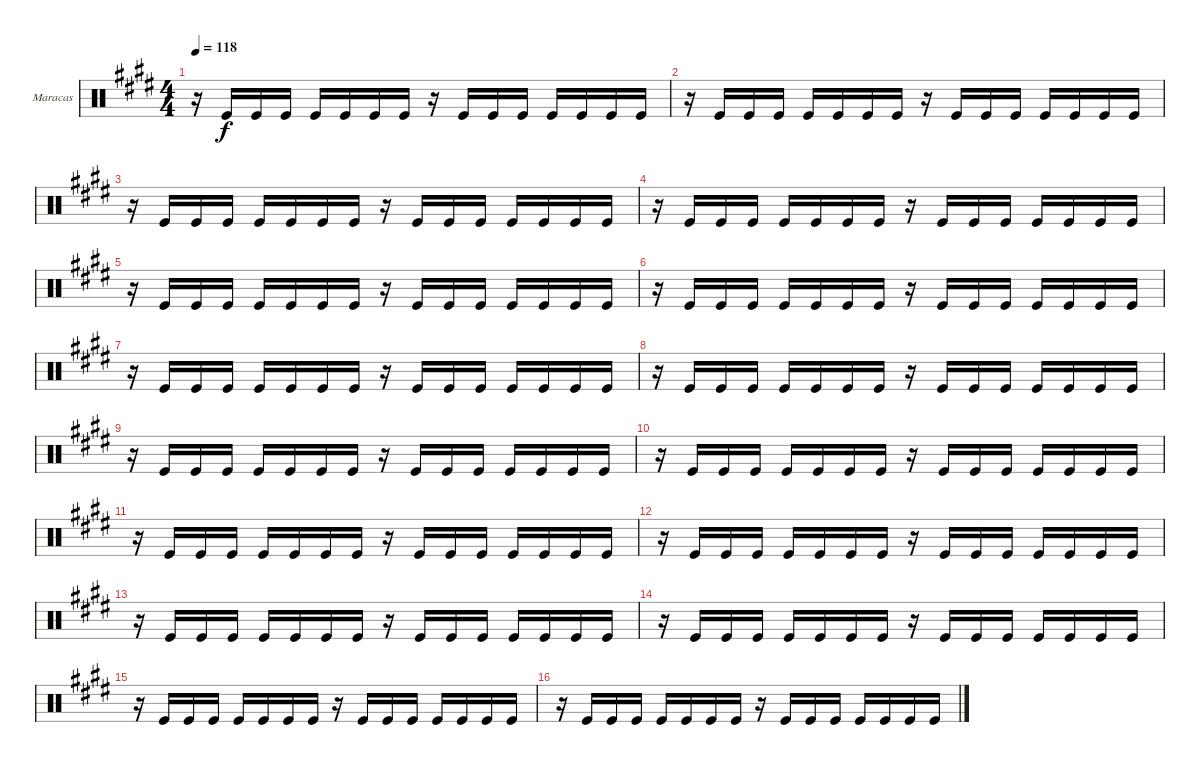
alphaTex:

\bracketExtendMode groupsimilarinstruments
\firstSystemTrackNameOrientation horizontal
\otherSystemsTrackNameOrientation horizontal
\track ("Maracas" "Maracas") {instrument percussion}
\staff {score}
\articulation defaults
\ts (4 4)
\tempo 118
\clef neutral
\ks e
r.16{dy f} "Kick (hit)".16 "Kick (hit)".16 "Kick (hit)".16 "Kick (hit)".16 "Kick (hit)".16 "Kick (hit)".16 "Kick (hit)".16 r.16 "Kick (hit)".16 "Kick (hit)".16 "Kick (hit)".16 "Kick (hit)".16 "Kick (hit)".16 "Kick (hit)".16 "Kick (hit)".16 |
r.16 "Kick (hit)".16 "Kick (hit)".16 "Kick (hit)".16 "Kick (hit)".16 "Kick (hit)".16 "Kick (hit)".16 "Kick (hit)".16 r.16 "Kick (hit)".16 "Kick (hit)".16 "Kick (hit)".16 "Kick (hit)".16 "Kick (hit)".16 "Kick (hit)".16 "Kick (hit)".16 |
r.16 "Kick (hit)".16 "Kick (hit)".16 "Kick (hit)".16 "Kick (hit)".16 "Kick (hit)".16 "Kick (hit)".16 "Kick (hit)".16 r.16 "Kick (hit)".16 "Kick (hit)".16 "Kick (hit)".16 "Kick (hit)".16 "Kick (hit)".16 "Kick (hit)".16 "Kick (hit)".16 |
r.16 "Kick (hit)".16 "Kick (hit)".16 "Kick (hit)".16 "Kick (hit)".16 "Kick (hit)".16 "Kick (hit)".16 "Kick (hit)".16 r.16 "Kick (hit)".16 "Kick (hit)".16 "Kick (hit)".16 "Kick (hit)".16 "Kick (hit)".16 "Kick (hit)".16 "Kick (hit)".16 |
r.16 "Kick (hit)".16 "Kick (hit)".16 "Kick (hit)".16 "Kick (hit)".16 "Kick (hit)".16 "Kick (hit)".16 "Kick (hit)".16 r.16 "Kick (hit)".16 "Kick (hit)".16 "Kick (hit)".16 "Kick (hit)".16 "Kick (hit)".16 "Kick (hit)".16 "Kick (hit)".16 |
r.16 "Kick (hit)".16 "Kick (hit)".16 "Kick (hit)".16 "Kick (hit)".16 "Kick (hit)".16 "Kick (hit)".16 "Kick (hit)".16 r.16 "Kick (hit)".16 "Kick (hit)".16 "Kick (hit)".16 "Kick (hit)".16 "Kick (hit)".16 "Kick (hit)".16 "Kick (hit)".16 |
r.16 "Kick (hit)".16 "Kick (hit)".16 "Kick (hit)".16 "Kick (hit)".16 "Kick (hit)".16 "Kick (hit)".16 "Kick (hit)".16 r.16 "Kick (hit)".16 "Kick (hit)".16 "Kick (hit)".16 "Kick (hit)".16 "Kick (hit)".16 "Kick (hit)".16 "Kick (hit)".16 |
r.16 "Kick (hit)".16 "Kick (hit)".16 "Kick (hit)".16 "Kick (hit)".16 "Kick (hit)".16 "Kick (hit)".16 "Kick (hit)".16 r.16 "Kick (hit)".16 "Kick (hit)".16 "Kick (hit)".16 "Kick (hit)".16 "Kick (hit)".16 "Kick (hit)".16 "Kick (hit)".16 |
r.16 "Kick (hit)".16 "Kick (hit)".16 "Kick (hit)".16 "Kick (hit)".16 "Kick (hit)".16 "Kick (hit)".16 "Kick (hit)".16 r.16 "Kick (hit)".16 "Kick (hit)".16 "Kick (hit)".16 "Kick (hit)".16 "Kick (hit)".16 "Kick (hit)".16 "Kick (hit)".16 |
r.16 "Kick (hit)".16 "Kick (hit)".16 "Kick (hit)".16 "Kick (hit)".16 "Kick (hit)".16 "Kick (hit)".16 "Kick (hit)".16 r.16 "Kick (hit)".16 "Kick (hit)".16 "Kick (hit)".16 "Kick (hit)".16 "Kick (hit)".16 "Kick (hit)".16 "Kick (hit)".16 |
r.16 "Kick (hit)".16 "Kick (hit)".16 "Kick (hit)".16 "Kick (hit)".16 "Kick (hit)".16 "Kick (hit)".16 "Kick (hit)".16 r.16 "Kick (hit)".16 "Kick (hit)".16 "Kick (hit)".16 "Kick (hit)".16 "Kick (hit)".16 "Kick (hit)".16 "Kick (hit)".16 |
r.16 "Kick (hit)".16 "Kick (hit)".16 "Kick (hit)".16 "Kick (hit)".16 "Kick (hit)".16 "Kick (hit)".16 "Kick (hit)".16 r.16 "Kick (hit)".16 "Kick (hit)".16 "Kick (hit)".16 "Kick (hit)".16 "Kick (hit)".16 "Kick (hit)".16 "Kick (hit)".16 |
r.16 "Kick (hit)".16 "Kick (hit)".16 "Kick (hit)".16 "Kick (hit)".16 "Kick (hit)".16 "Kick (hit)".16 "Kick (hit)".16 r.16 "Kick (hit)".16 "Kick (hit)".16 "Kick (hit)".16 "Kick (hit)".16 "Kick (hit)".16 "Kick (hit)".16 "Kick (hit)".16 |
r.16 "Kick (hit)".16 "Kick (hit)".16 "Kick (hit)".16 "Kick (hit)".16 "Kick (hit)".16 "Kick (hit)".16 "Kick (hit)".16 r.16 "Kick (hit)".16 "Kick (hit)".16 "Kick (hit)".16 "Kick (hit)".16 "Kick (hit)".16 "Kick (hit)".16 "Kick (hit)".16 |
r.16 "Kick (hit)".16 "Kick (hit)".16 "Kick (hit)".16 "Kick (hit)".16 "Kick (hit)".16 "Kick (hit)".16 "Kick (hit)".16 r.16 "Kick (hit)".16 "Kick (hit)".16 "Kick (hit)".16 "Kick (hit)".16 "Kick (hit)".16 "Kick (hit)".16 "Kick (hit)".16 |
r.16 "Kick (hit)".16 "Kick (hit)".16 "Kick (hit)".16 "Kick (hit)".16 "Kick (hit)".16 "Kick (hit)".16 "Kick (hit)".16 r.16 "Kick (hit)".16 "Kick (hit)".16 "Kick (hit)".16 "Kick (hit)".16 "Kick (hit)".16 "Kick (hit)".16 "Kick (hit)".16
